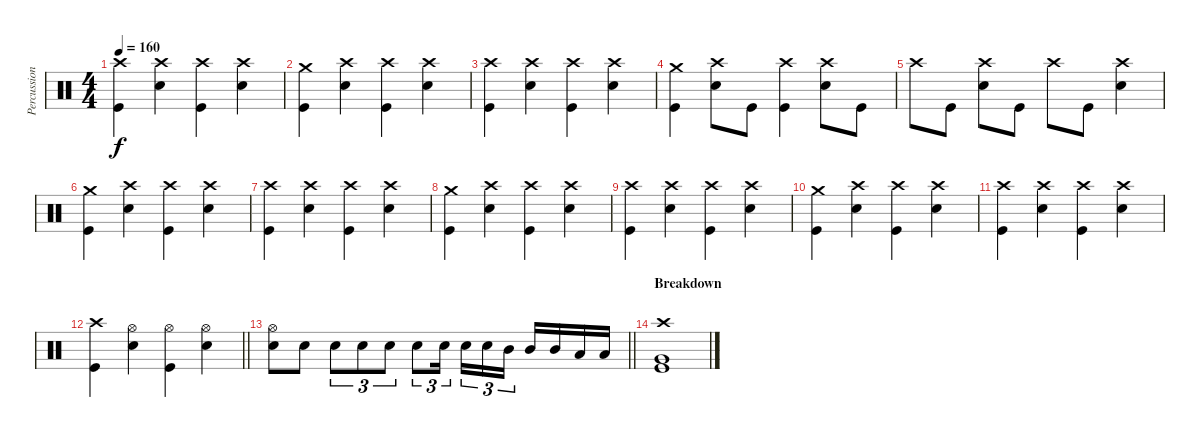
\track ("Percussions" "Percussion") {instrument percussion}
\staff {score}
\articulation defaults
\ts (4 4)
\tempo 160
\clef neutral
\ks c
("Kick (hit)" "Crash high (hit)").4{dy f} ("Snare (hit) 2" "Crash high (hit)").4 ("Kick (hit)" "Crash high (hit)").4 ("Snare (hit) 2" "Crash high (hit)").4 |
("Kick (hit)" "Crash medium (hit)").4 ("Snare (hit) 2" "Crash high (hit)").4 ("Kick (hit)" "Crash high (hit)").4 ("Snare (hit) 2" "Crash high (hit)").4 |
("Kick (hit)" "Crash high (hit)").4 ("Snare (hit) 2" "Crash high (hit)").4 ("Kick (hit)" "Crash high (hit)").4 ("Snare (hit) 2" "Crash high (hit)").4 |
("Kick (hit)" "Crash medium (hit)").4 ("Snare (hit) 2" "Crash high (hit)").8 "Kick (hit)".8 ("Kick (hit)" "Crash high (hit)").4 ("Snare (hit) 2" "Crash high (hit)").8 "Kick (hit)".8 |
"Crash high (hit)".8 "Kick (hit)".8 ("Snare (hit) 2" "Crash high (hit)").8 "Kick (hit)".8 "Crash high (hit)".8 "Kick (hit)".8 ("Snare (hit) 2" "Crash high (hit)").4 |
("Kick (hit)" "Crash medium (hit)").4 ("Snare (hit) 2" "Crash high (hit)").4 ("Kick (hit)" "Crash high (hit)").4 ("Snare (hit) 2" "Crash high (hit)").4 |
("Kick (hit)" "Crash high (hit)").4 ("Snare (hit) 2" "Crash high (hit)").4 ("Kick (hit)" "Crash high (hit)").4 ("Snare (hit) 2" "Crash high (hit)").4 |
("Kick (hit)" "Crash medium (hit)").4 ("Snare (hit) 2" "Crash high (hit)").4 ("Kick (hit)" "Crash high (hit)").4 ("Snare (hit) 2" "Crash high (hit)").4 |
("Kick (hit)" "Crash high (hit)").4 ("Snare (hit) 2" "Crash high (hit)").4 ("Kick (hit)" "Crash high (hit)").4 ("Snare (hit) 2" "Crash high (hit)").4 |
("Kick (hit)" "Crash medium (hit)").4 ("Snare (hit) 2" "Crash high (hit)").4 ("Kick (hit)" "Crash high (hit)").4 ("Snare (hit) 2" "Crash high (hit)").4 |
("Kick (hit)" "Crash high (hit)").4 ("Snare (hit) 2" "Crash high (hit)").4 ("Kick (hit)" "Crash high (hit)").4 ("Snare (hit) 2" "Crash high (hit)").4 |
\barLineRight lightlight
("Kick (hit)" "Crash high (hit)").4 ("Snare (hit) 2" "Hi-Hat (open)").4 ("Kick (hit)" "Hi-Hat (open)").4 ("Snare (hit) 2" "Hi-Hat (open)").4 |
\barLineRight lightlight
("Snare (hit) 2" "Hi-Hat (open)").8 "Snare (hit) 2".8 "Snare (hit) 2".8{tu (3 2)} "Snare (hit) 2".8{tu (3 2)} "Snare (hit) 2".8{tu (3 2)} "Snare (hit) 2".8{tu (3 2)} "Snare (hit) 2".16{tu (3 2) beam splitsecondary} "Snare (hit) 2".16{tu (3 2)} "Snare (hit) 2".16{tu (3 2)} "Mid Tom (hit)".16{tu (3 2)} "Mid Tom (hit)".16 "Mid Tom (hit)".16 "Low Tom (hit)".16 "Low Tom (hit)".16 |
\section ("" "Breakdown")
("Kick (hit)" "Very Low Tom (hit)" "Crash high (hit)").1
